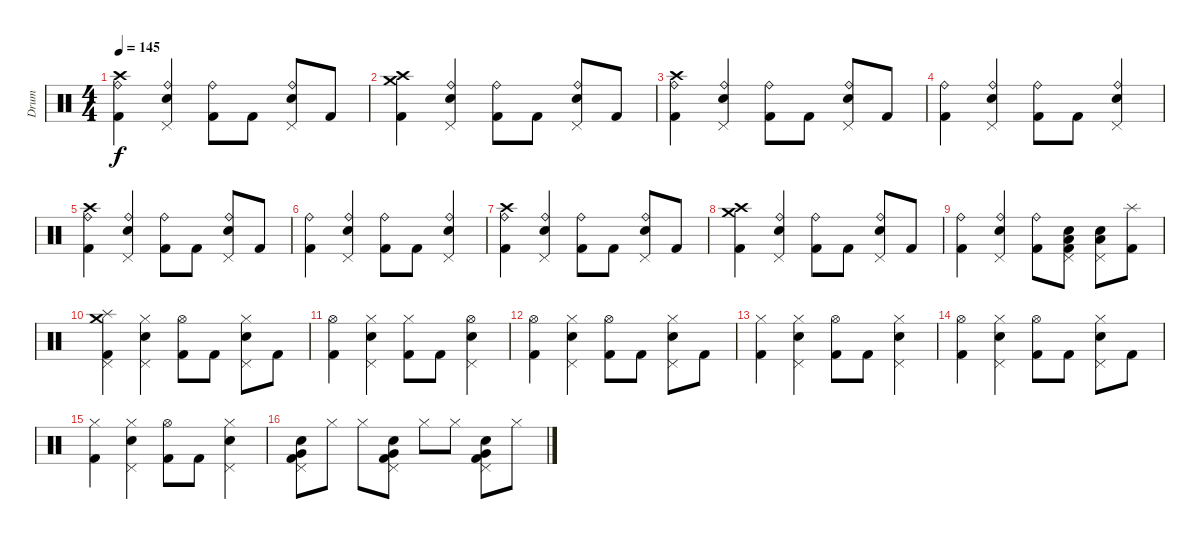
\track ("Drum" "Drum") {instrument percussion}
\staff {score}
\articulation defaults
\ts (4 4)
\tempo 145
\clef neutral
\ks c
("Ride (bell)" "Crash high (hit)" "Kick (hit) 2").4{dy f} ("Ride (bell)" "Snare (hit) 2" "Pedal Hi-Hat (hit)").4 ("Ride (bell)" "Kick (hit) 2").8 "Kick (hit) 2".8 ("Ride (bell)" "Snare (hit) 2" "Pedal Hi-Hat (hit)").8 "Kick (hit) 2".8 |
("Crash medium (hit)" "Crash high (hit)" "Kick (hit) 2").4 ("Ride (bell)" "Snare (hit) 2" "Pedal Hi-Hat (hit)").4 ("Ride (bell)" "Kick (hit) 2").8 "Kick (hit) 2".8 ("Ride (bell)" "Snare (hit) 2" "Pedal Hi-Hat (hit)").8 "Kick (hit) 2".8 |
("Ride (bell)" "Crash high (hit)" "Kick (hit) 2").4 ("Ride (bell)" "Snare (hit) 2" "Pedal Hi-Hat (hit)").4 ("Ride (bell)" "Kick (hit) 2").8 "Kick (hit) 2".8 ("Ride (bell)" "Snare (hit) 2" "Pedal Hi-Hat (hit)").8 "Kick (hit) 2".8 |
("Ride (bell)" "Kick (hit) 2").4 ("Ride (bell)" "Snare (hit) 2" "Pedal Hi-Hat (hit)").4 ("Ride (bell)" "Kick (hit) 2").8 "Kick (hit) 2".8 ("Ride (bell)" "Snare (hit) 2" "Pedal Hi-Hat (hit)").4 |
("Ride (bell)" "Crash high (hit)" "Kick (hit) 2").4 ("Ride (bell)" "Snare (hit) 2" "Pedal Hi-Hat (hit)").4 ("Ride (bell)" "Kick (hit) 2").8 "Kick (hit) 2".8 ("Ride (bell)" "Snare (hit) 2" "Pedal Hi-Hat (hit)").8 "Kick (hit) 2".8 |
("Ride (bell)" "Kick (hit) 2").4 ("Ride (bell)" "Snare (hit) 2" "Pedal Hi-Hat (hit)").4 ("Ride (bell)" "Kick (hit) 2").8 "Kick (hit) 2".8 ("Ride (bell)" "Snare (hit) 2" "Pedal Hi-Hat (hit)").4 |
("Ride (bell)" "Crash high (hit)" "Kick (hit) 2").4 ("Ride (bell)" "Snare (hit) 2" "Pedal Hi-Hat (hit)").4 ("Ride (bell)" "Kick (hit) 2").8 "Kick (hit) 2".8 ("Ride (bell)" "Snare (hit) 2" "Pedal Hi-Hat (hit)").8 "Kick (hit) 2".8 |
("Crash medium (hit)" "Crash high (hit)" "Kick (hit) 2").4 ("Ride (bell)" "Snare (hit) 2" "Pedal Hi-Hat (hit)").4 ("Ride (bell)" "Kick (hit) 2").8 "Kick (hit) 2".8 ("Ride (bell)" "Snare (hit) 2" "Pedal Hi-Hat (hit)").8 "Kick (hit) 2".8 |
("Ride (bell)" "Kick (hit) 2").4 ("Ride (bell)" "Snare (hit) 2" "Pedal Hi-Hat (hit)").4 ("Ride (bell)" "Kick (hit) 2").8 ("Low Tom (hit)" "Snare (hit) 2" "Kick (hit) 2" "Pedal Hi-Hat (hit)").8 ("Low Tom (hit)" "Snare (hit) 2" "Pedal Hi-Hat (hit)").8 ("Splash (hit)" "Kick (hit) 2").8 |
("Splash (hit)" "Crash medium (hit)" "Kick (hit) 2" "Pedal Hi-Hat (hit)").4 ("Hi-Hat (closed)" "Snare (hit) 2" "Pedal Hi-Hat (hit)").4 ("Hi-Hat (open)" "Kick (hit) 2").8 "Kick (hit) 2".8 ("Hi-Hat (closed)" "Snare (hit) 2" "Pedal Hi-Hat (hit)").8 "Kick (hit) 2".8 |
("Hi-Hat (open)" "Kick (hit) 2").4 ("Hi-Hat (closed)" "Snare (hit) 2" "Pedal Hi-Hat (hit)").4 ("Hi-Hat (closed)" "Kick (hit) 2").8 "Kick (hit) 2".8 ("Hi-Hat (open)" "Snare (hit) 2" "Pedal Hi-Hat (hit)").4 |
("Hi-Hat (open)" "Kick (hit) 2").4 ("Hi-Hat (closed)" "Snare (hit) 2" "Pedal Hi-Hat (hit)").4 ("Hi-Hat (open)" "Kick (hit) 2").8 "Kick (hit) 2".8 ("Hi-Hat (closed)" "Snare (hit) 2" "Pedal Hi-Hat (hit)").8 "Kick (hit) 2".8 |
("Hi-Hat (closed)" "Kick (hit) 2").4 ("Hi-Hat (closed)" "Snare (hit) 2" "Pedal Hi-Hat (hit)").4 ("Hi-Hat (open)" "Kick (hit) 2").8 "Kick (hit) 2".8 ("Hi-Hat (closed)" "Snare (hit) 2" "Pedal Hi-Hat (hit)").4 |
("Hi-Hat (open)" "Kick (hit) 2").4 ("Hi-Hat (closed)" "Snare (hit) 2" "Pedal Hi-Hat (hit)").4 ("Hi-Hat (open)" "Kick (hit) 2").8 "Kick (hit) 2".8 ("Hi-Hat (closed)" "Snare (hit) 2" "Pedal Hi-Hat (hit)").8 "Kick (hit) 2".8 |
("Hi-Hat (closed)" "Kick (hit) 2").4 ("Hi-Hat (closed)" "Snare (hit) 2" "Pedal Hi-Hat (hit)").4 ("Hi-Hat (open)" "Kick (hit) 2").8 "Kick (hit) 2".8 ("Hi-Hat (closed)" "Snare (hit) 2" "Pedal Hi-Hat (hit)").4 |
("Very Low Tom (hit)" "Snare (hit) 2" "Kick (hit) 2" "Pedal Hi-Hat (hit)").8 "Hi-Hat (closed)".8 "Hi-Hat (closed)".8 ("Very Low Tom (hit)" "Snare (hit) 2" "Kick (hit) 2" "Pedal Hi-Hat (hit)").8 "Hi-Hat (closed)".8 "Hi-Hat (closed)".8 ("Very Low Tom (hit)" "Snare (hit) 2" "Kick (hit) 2" "Pedal Hi-Hat (hit)").8 "Hi-Hat (closed)".8
